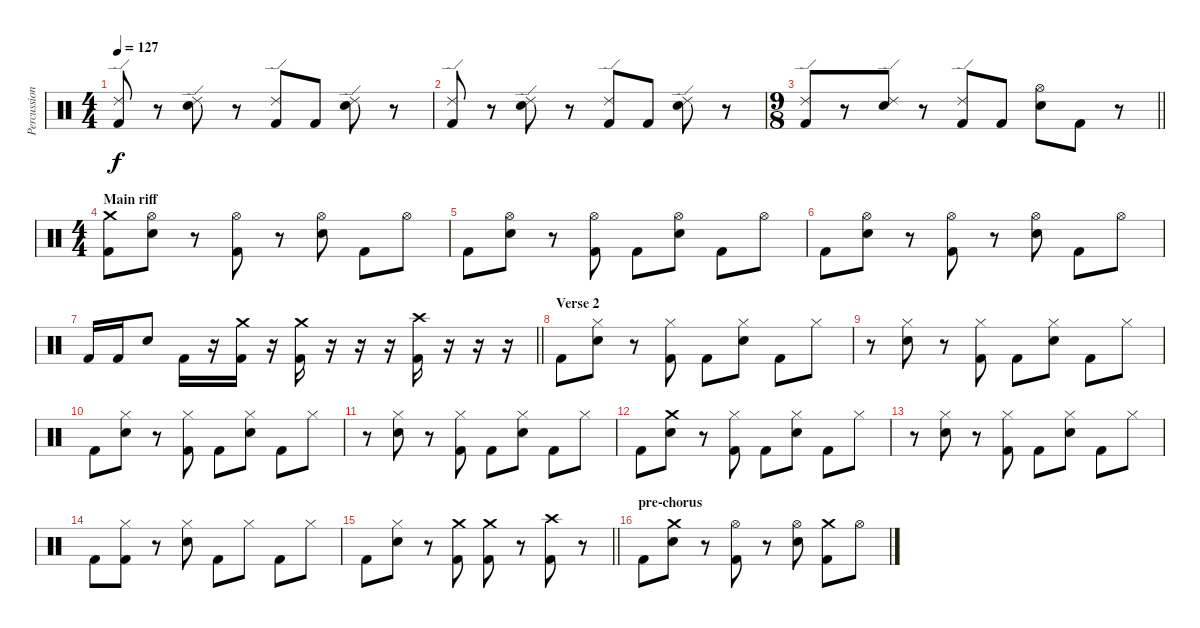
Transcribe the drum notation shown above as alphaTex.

\track ("Percussion" "Percussion") {instrument percussion}
\staff {score}
\articulation defaults
\ts (4 4)
\tempo 127
\clef neutral
\ks c
("Ride (edge) 2" "Kick (hit) 2").8{dy f} r.8 ("Ride (edge) 2" "Electric Snare (hit)").8 r.8 ("Ride (edge) 2" "Kick (hit) 2").8 "Kick (hit) 2".8 ("Ride (edge) 2" "Electric Snare (hit)").8 r.8 |
("Ride (edge) 2" "Kick (hit) 2").8 r.8 ("Ride (edge) 2" "Electric Snare (hit)").8 r.8 ("Ride (edge) 2" "Kick (hit) 2").8 "Kick (hit) 2".8 ("Ride (edge) 2" "Electric Snare (hit)").8 r.8 |
\ts (9 8)
\barLineRight lightlight
("Ride (edge) 2" "Kick (hit) 2").8 r.8 ("Ride (edge) 2" "Electric Snare (hit)").8 r.8 ("Ride (edge) 2" "Kick (hit) 2").8 "Kick (hit) 2".8 ("Hi-Hat (open)" "Electric Snare (hit)").8 "Kick (hit) 2".8 r.8 |
\ts (4 4)
\section ("" "Main riff")
("Crash medium (hit)" "Kick (hit) 2").8 ("Hi-Hat (open)" "Electric Snare (hit)").8 r.8 ("Hi-Hat (open)" "Kick (hit) 2").8 r.8 ("Hi-Hat (open)" "Electric Snare (hit)").8 "Kick (hit) 2".8 "Hi-Hat (open)".8 |
"Kick (hit) 2".8 ("Hi-Hat (open)" "Electric Snare (hit)").8 r.8 ("Hi-Hat (open)" "Kick (hit) 2").8 "Kick (hit) 2".8 ("Hi-Hat (open)" "Electric Snare (hit)").8 "Kick (hit) 2".8 "Hi-Hat (open)".8 |
"Kick (hit) 2".8 ("Hi-Hat (open)" "Electric Snare (hit)").8 r.8 ("Hi-Hat (open)" "Kick (hit) 2").8 r.8 ("Hi-Hat (open)" "Electric Snare (hit)").8 "Kick (hit) 2".8 "Hi-Hat (open)".8 |
\barLineRight lightlight "Kick (hit) 2".16 "Kick (hit) 2".16 "Electric Snare (hit)".8 "Kick (hit) 2".16
r.16 ("Crash medium (hit)" "Kick (hit) 2").16 r.16 ("Crash medium (hit)" "Kick (hit) 2").16 r.16 r.16 r.16 ("Crash high (hit)" "Kick (hit) 2").16 r.16 r.16 r.16 |
\section ("" "Verse 2 ")
"Kick (hit) 2".8 ("Hi-Hat (closed)" "Electric Snare (hit)").8 r.8 ("Hi-Hat (closed)" "Kick (hit) 2").8 "Kick (hit) 2".8 ("Hi-Hat (closed)" "Electric Snare (hit)").8 "Kick (hit) 2".8 "Hi-Hat (closed)".8 |
r.8 ("Hi-Hat (closed)" "Electric Snare (hit)").8 r.8 ("Hi-Hat (closed)" "Kick (hit) 2").8 "Kick (hit) 2".8 ("Hi-Hat (closed)" "Electric Snare (hit)").8 "Kick (hit) 2".8 "Hi-Hat (closed)".8 |
"Kick (hit) 2".8 ("Hi-Hat (closed)" "Electric Snare (hit)").8 r.8 ("Hi-Hat (closed)" "Kick (hit) 2").8 "Kick (hit) 2".8 ("Hi-Hat (closed)" "Electric Snare (hit)").8 "Kick (hit) 2".8 "Hi-Hat (closed)".8 |
r.8 ("Hi-Hat (closed)" "Electric Snare (hit)").8 r.8 ("Hi-Hat (closed)" "Kick (hit) 2").8 "Kick (hit) 2".8 ("Hi-Hat (closed)" "Electric Snare (hit)").8 "Kick (hit) 2".8 "Hi-Hat (closed)".8 |
"Kick (hit) 2".8 ("Crash medium (hit)" "Electric Snare (hit)").8 r.8 ("Hi-Hat (closed)" "Kick (hit) 2").8 "Kick (hit) 2".8 ("Hi-Hat (closed)" "Electric Snare (hit)").8 "Kick (hit) 2".8 "Hi-Hat (closed)".8 |
r.8 ("Hi-Hat (closed)" "Electric Snare (hit)").8 r.8 ("Hi-Hat (closed)" "Kick (hit) 2").8 "Kick (hit) 2".8 ("Hi-Hat (closed)" "Electric Snare (hit)").8 "Kick (hit) 2".8 "Hi-Hat (closed)".8 |
"Kick (hit) 2".8 ("Hi-Hat (closed)" "Kick (hit) 2").8 r.8 ("Hi-Hat (closed)" "Electric Snare (hit)").8 "Kick (hit) 2".8 "Hi-Hat (closed)".8 "Kick (hit) 2".8 "Hi-Hat (closed)".8 |
\barLineRight lightlight "Kick (hit) 2".8
("Hi-Hat (closed)" "Electric Snare (hit)").8 r.8 ("Crash medium (hit)" "Kick (hit) 2").8 ("Crash medium (hit)" "Kick (hit) 2").8 r.8 ("Crash high (hit)" "Kick (hit) 2").8 r.8 |
\section ("" "pre-chorus")
"Kick (hit) 2".8 ("Crash medium (hit)" "Electric Snare (hit)").8 r.8 ("Hi-Hat (open)" "Kick (hit) 2").8 r.8 ("Hi-Hat (open)" "Electric Snare (hit)").8 ("Crash medium (hit)" "Kick (hit) 2").8 "Hi-Hat (open)".8
